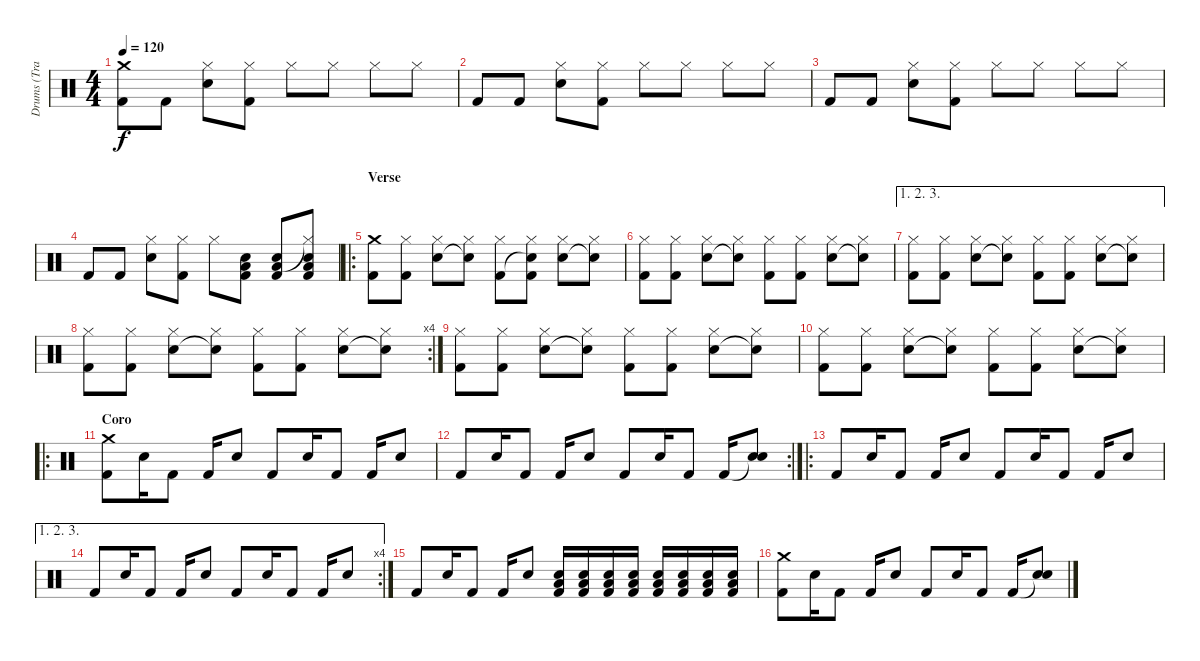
\track ("Drums (Travis Barker)" "Drums (Tra") {instrument percussion}
\staff {score}
\articulation defaults
\ts (4 4)
\tempo 120
\clef neutral
\ks c
("Crash medium (hit)" "Kick (hit) 2").8{dy f} "Kick (hit) 2".8 ("Hi-Hat (closed)" "Snare (hit) 2").8 ("Hi-Hat (closed)" "Kick (hit) 2").8 "Hi-Hat (closed)".8 "Hi-Hat (closed)".8 "Hi-Hat (closed)".8 "Hi-Hat (closed)".8 |
"Kick (hit) 2".8 "Kick (hit) 2".8 ("Hi-Hat (closed)" "Snare (hit) 2").8 ("Hi-Hat (closed)" "Kick (hit) 2").8 "Hi-Hat (closed)".8 "Hi-Hat (closed)".8 "Hi-Hat (closed)".8 "Hi-Hat (closed)".8 |
"Kick (hit) 2".8 "Kick (hit) 2".8 ("Hi-Hat (closed)" "Snare (hit) 2").8 ("Hi-Hat (closed)" "Kick (hit) 2").8 "Hi-Hat (closed)".8 "Hi-Hat (closed)".8 "Hi-Hat (closed)".8 "Hi-Hat (closed)".8 |
"Kick (hit) 2".8 "Kick (hit) 2".8 ("Hi-Hat (closed)" "Snare (hit) 2").8 ("Hi-Hat (closed)" "Kick (hit) 2").8 "Hi-Hat (closed)".8 ("Low Floor Tom (hit)" "Electric Snare (hit)" "Kick (hit) 2").8 ("Low Floor Tom (hit)" "Electric Snare (hit)" "Kick (hit) 2").8 ("Hi-Hat (closed)"{t} "Low Floor Tom (hit)" "Electric Snare (hit)" "Kick (hit) 2").8 |
\ro
\section ("" "Verse")
("Crash medium (hit)" "Kick (hit) 2").8 ("Hi-Hat (closed)" "Kick (hit) 2").8 ("Hi-Hat (closed)" "Snare (hit) 2").8 ("Hi-Hat (closed)" "Snare (hit)"{t}).8 ("Hi-Hat (closed)" "Kick (hit) 2").8 ("Hi-Hat (closed)" "Snare (hit)"{t} "Kick (hit) 2").8 ("Hi-Hat (closed)" "Snare (hit) 2").8 ("Hi-Hat (closed)" "Snare (hit)"{t}).8 |
("Hi-Hat (closed)" "Kick (hit) 2").8 ("Hi-Hat (closed)" "Kick (hit) 2").8 ("Hi-Hat (closed)" "Snare (hit) 2").8 ("Hi-Hat (closed)" "Snare (hit)"{t}).8 ("Hi-Hat (closed)" "Kick (hit) 2").8 ("Hi-Hat (closed)" "Kick (hit) 2").8 ("Hi-Hat (closed)" "Snare (hit) 2").8 ("Hi-Hat (closed)" "Snare (hit)"{t}).8 |
\ae (1 2 3)
("Hi-Hat (closed)" "Kick (hit) 2").8 ("Hi-Hat (closed)" "Kick (hit) 2").8 ("Hi-Hat (closed)" "Snare (hit) 2").8 ("Hi-Hat (closed)" "Snare (hit)"{t}).8 ("Hi-Hat (closed)" "Kick (hit) 2").8 ("Hi-Hat (closed)" "Kick (hit) 2").8 ("Hi-Hat (closed)" "Snare (hit) 2").8 ("Hi-Hat (closed)" "Snare (hit)"{t}).8 |
\rc 4
("Hi-Hat (closed)" "Kick (hit) 2").8 ("Hi-Hat (closed)" "Kick (hit) 2").8 ("Hi-Hat (closed)" "Snare (hit) 2").8 ("Hi-Hat (closed)" "Snare (hit)"{t}).8 ("Hi-Hat (closed)" "Kick (hit) 2").8 ("Hi-Hat (closed)" "Kick (hit) 2").8 ("Hi-Hat (closed)" "Snare (hit) 2").8 ("Hi-Hat (closed)" "Snare (hit)"{t}).8 |
("Hi-Hat (closed)" "Kick (hit) 2").8 ("Hi-Hat (closed)" "Kick (hit) 2").8 ("Hi-Hat (closed)" "Snare (hit) 2").8 ("Hi-Hat (closed)" "Snare (hit)"{t}).8 ("Hi-Hat (closed)" "Kick (hit) 2").8 ("Hi-Hat (closed)" "Kick (hit) 2").8 ("Hi-Hat (closed)" "Snare (hit) 2").8 ("Hi-Hat (closed)" "Snare (hit)"{t}).8 |
("Hi-Hat (closed)" "Kick (hit) 2").8 ("Hi-Hat (closed)" "Kick (hit) 2").8 ("Hi-Hat (closed)" "Snare (hit) 2").8 ("Hi-Hat (closed)" "Snare (hit)"{t}).8 ("Hi-Hat (closed)" "Kick (hit) 2").8 ("Hi-Hat (closed)" "Kick (hit) 2").8 ("Hi-Hat (closed)" "Snare (hit) 2").8 ("Hi-Hat (closed)" "Snare (hit)"{t}).8 |
\ro
\section ("" "Coro")
("Crash medium (hit)" "Kick (hit) 2").8 "Snare (hit) 2".16 "Kick (hit) 2".8 "Kick (hit) 2".16 "Snare (hit) 2".8 "Kick (hit) 2".8 "Snare (hit) 2".16 "Kick (hit) 2".8 "Kick (hit) 2".16 "Snare (hit) 2".8 |
\rc 2 "Kick (hit) 2".8 "Snare (hit) 2".16 "Kick (hit) 2".8 "Kick (hit) 2".16 "Snare (hit) 2".8 "Kick (hit) 2".8 "Snare (hit) 2".16 "Kick (hit) 2".8 "Kick (hit) 2".16
("Snare (hit)"{t} "Snare (hit) 2").8 |
\ro "Kick (hit) 2".8 "Snare (hit) 2".16 "Kick (hit) 2".8 "Kick (hit) 2".16 "Snare (hit) 2".8 "Kick (hit) 2".8 "Snare (hit) 2".16 "Kick (hit) 2".8 "Kick (hit) 2".16 "Snare (hit) 2".8
|
\ae (1 2 3)
\rc 4 "Kick (hit) 2".8 "Snare (hit) 2".16 "Kick (hit) 2".8 "Kick (hit) 2".16 "Snare (hit) 2".8 "Kick (hit) 2".8 "Snare (hit) 2".16 "Kick (hit) 2".8 "Kick (hit) 2".16 "Snare (hit) 2".8
|
"Kick (hit) 2".8 "Snare (hit) 2".16 "Kick (hit) 2".8 "Kick (hit) 2".16 "Snare (hit) 2".8 ("Electric Snare (hit)" "Low Floor Tom (hit)" "Kick (hit) 2").16 ("Electric Snare (hit)" "Low Floor Tom (hit)" "Kick (hit) 2").16 ("Electric Snare (hit)" "Low Floor Tom (hit)" "Kick (hit) 2").16 ("Electric Snare (hit)" "Low Floor Tom (hit)" "Kick (hit) 2").16 ("Electric Snare (hit)" "Low Floor Tom (hit)" "Kick (hit) 2").16 ("Electric Snare (hit)" "Low Floor Tom (hit)" "Kick (hit) 2").16 ("Electric Snare (hit)" "Low Floor Tom (hit)" "Kick (hit) 2").16 ("Electric Snare (hit)" "Low Floor Tom (hit)" "Kick (hit) 2").16 |
("Crash medium (hit)" "Kick (hit) 2").8 "Snare (hit) 2".16 "Kick (hit) 2".8 "Kick (hit) 2".16 "Snare (hit) 2".8 "Kick (hit) 2".8 "Snare (hit) 2".16 "Kick (hit) 2".8 "Kick (hit) 2".16 ("Snare (hit)"{t} "Snare (hit) 2").8
